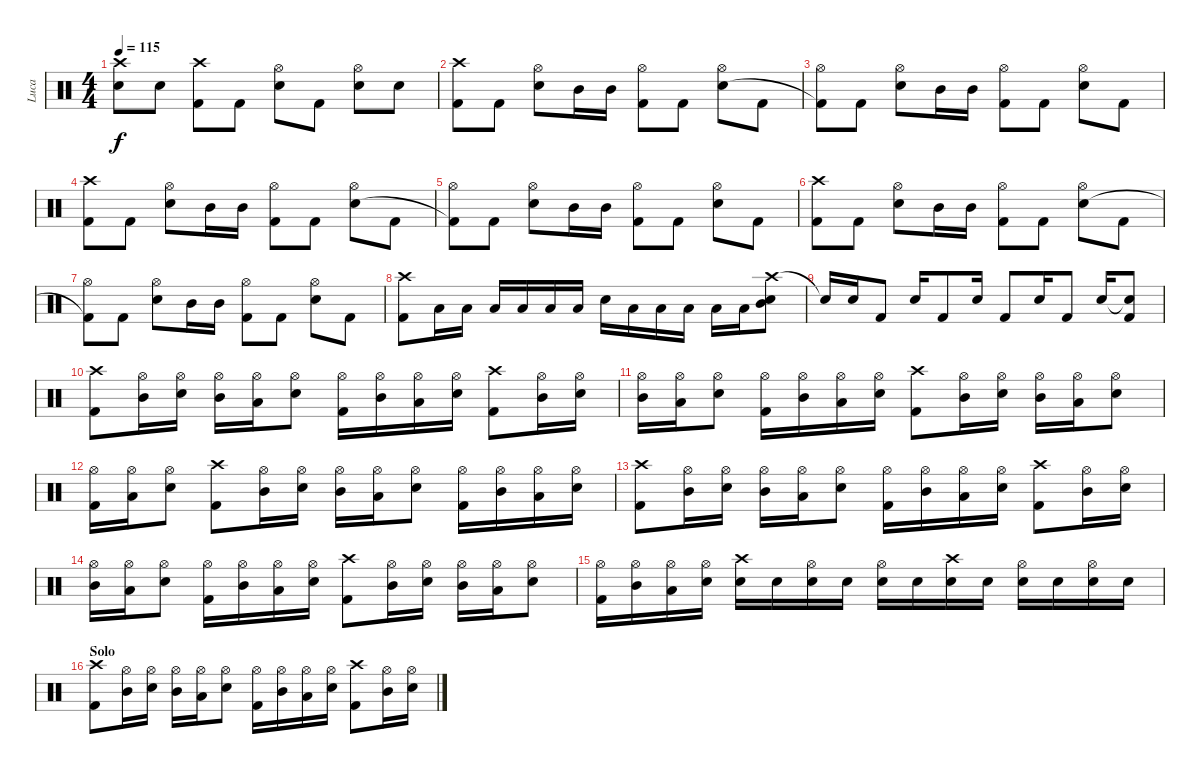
\track ("Luca" "Luca") {instrument percussion}
\staff {score}
\articulation defaults
\ts (4 4)
\tempo 115
\clef neutral
\ks c
("Crash high (hit)"{t} "Snare (hit)"{t}).8{dy f} "Snare (hit) 2".8 ("Crash high (hit)" "Kick (hit) 2").8 "Kick (hit) 2".8 ("Hi-Hat (open)" "Snare (hit) 2").8 "Kick (hit) 2".8 ("Hi-Hat (open)" "Snare (hit) 2").8 "Snare (hit) 2".8 |
("Crash high (hit)" "Kick (hit) 2").8 "Kick (hit) 2".8 ("Hi-Hat (open)" "Snare (hit) 2").8 "Mid Tom (hit)".16 "Mid Tom (hit)".16 ("Hi-Hat (open)" "Kick (hit) 2").8 "Kick (hit) 2".8 ("Hi-Hat (open)" "Snare (hit) 2").8 "Kick (hit) 2".8 |
("Hi-Hat (open)" "Kick (hit) 2"{t}).8 "Kick (hit) 2".8 ("Hi-Hat (open)" "Snare (hit) 2").8 "Mid Tom (hit)".16 "Mid Tom (hit)".16 ("Hi-Hat (open)" "Kick (hit) 2").8 "Kick (hit) 2".8 ("Hi-Hat (open)" "Snare (hit) 2").8 "Kick (hit) 2".8 |
("Crash high (hit)" "Kick (hit) 2").8 "Kick (hit) 2".8 ("Hi-Hat (open)" "Snare (hit) 2").8 "Mid Tom (hit)".16 "Mid Tom (hit)".16 ("Hi-Hat (open)" "Kick (hit) 2").8 "Kick (hit) 2".8 ("Hi-Hat (open)" "Snare (hit) 2").8 "Kick (hit) 2".8 |
("Hi-Hat (open)" "Kick (hit) 2"{t}).8 "Kick (hit) 2".8 ("Hi-Hat (open)" "Snare (hit) 2").8 "Mid Tom (hit)".16 "Mid Tom (hit)".16 ("Hi-Hat (open)" "Kick (hit) 2").8 "Kick (hit) 2".8 ("Hi-Hat (open)" "Snare (hit) 2").8 "Kick (hit) 2".8 |
("Crash high (hit)" "Kick (hit) 2").8 "Kick (hit) 2".8 ("Hi-Hat (open)" "Snare (hit) 2").8 "Mid Tom (hit)".16 "Mid Tom (hit)".16 ("Hi-Hat (open)" "Kick (hit) 2").8 "Kick (hit) 2".8 ("Hi-Hat (open)" "Snare (hit) 2").8 "Kick (hit) 2".8 |
("Hi-Hat (open)" "Kick (hit) 2"{t}).8 "Kick (hit) 2".8 ("Hi-Hat (open)" "Snare (hit) 2").8 "Mid Tom (hit)".16 "Mid Tom (hit)".16 ("Hi-Hat (open)" "Kick (hit) 2").8 "Kick (hit) 2".8 ("Hi-Hat (open)" "Snare (hit) 2").8 "Kick (hit) 2".8 |
("Crash high (hit)" "Kick (hit) 2").8 "Low Floor Tom (hit)".16 "Low Floor Tom (hit)".16 "Low Floor Tom (hit)".16 "Low Floor Tom (hit)".16 "Low Floor Tom (hit)".16 "Low Floor Tom (hit)".16 "Snare (hit) 2".16 "Low Floor Tom (hit)".16 "Low Floor Tom (hit)".16 "Low Floor Tom (hit)".16 "Low Floor Tom (hit)".16 "Low Floor Tom (hit)".16 ("Crash high (hit)" "Mid Tom (hit)" "Snare (hit) 2").8 |
"Snare (hit) 2"{t}.16 "Snare (hit) 2".16 "Kick (hit) 2".8 "Snare (hit) 2".16 "Kick (hit) 2".8 "Snare (hit) 2".16 "Kick (hit) 2".8 "Snare (hit) 2".16 "Kick (hit) 2".8 "Snare (hit) 2".16 ("Snare (hit)"{t} "Kick (hit) 2").8 |
("Crash high (hit)" "Kick (hit) 2").8 ("Hi-Hat (open)" "Mid Tom (hit)").16 ("Hi-Hat (open)" "Snare (hit) 2").16 ("Hi-Hat (open)" "Mid Tom (hit)").16 ("Hi-Hat (open)" "Low Floor Tom (hit)").16 ("Hi-Hat (open)" "Snare (hit) 2").8 ("Hi-Hat (open)" "Kick (hit) 2").16 ("Hi-Hat (open)" "Mid Tom (hit)").16 ("Hi-Hat (open)" "Low Floor Tom (hit)").16 ("Hi-Hat (open)" "Snare (hit) 2").16 ("Crash high (hit)" "Kick (hit) 2").8 ("Hi-Hat (open)" "Mid Tom (hit)").16 ("Hi-Hat (open)" "Snare (hit) 2").16 |
("Hi-Hat (open)" "Mid Tom (hit)").16 ("Hi-Hat (open)" "Low Floor Tom (hit)").16 ("Hi-Hat (open)" "Snare (hit) 2").8 ("Hi-Hat (open)" "Kick (hit) 2").16 ("Hi-Hat (open)" "Mid Tom (hit)").16 ("Hi-Hat (open)" "Low Floor Tom (hit)").16 ("Hi-Hat (open)" "Snare (hit) 2").16 ("Crash high (hit)" "Kick (hit) 2").8 ("Hi-Hat (open)" "Mid Tom (hit)").16 ("Hi-Hat (open)" "Snare (hit) 2").16 ("Hi-Hat (open)" "Mid Tom (hit)").16 ("Hi-Hat (open)" "Low Floor Tom (hit)").16 ("Hi-Hat (open)" "Snare (hit) 2").8 |
("Hi-Hat (open)" "Kick (hit) 2").16 ("Hi-Hat (open)" "Low Floor Tom (hit)").16 ("Hi-Hat (open)" "Snare (hit) 2").8 ("Crash high (hit)" "Kick (hit) 2").8 ("Hi-Hat (open)" "Mid Tom (hit)").16 ("Hi-Hat (open)" "Snare (hit) 2").16 ("Hi-Hat (open)" "Mid Tom (hit)").16 ("Hi-Hat (open)" "Low Floor Tom (hit)").16 ("Hi-Hat (open)" "Snare (hit) 2").8 ("Hi-Hat (open)" "Kick (hit) 2").16 ("Hi-Hat (open)" "Mid Tom (hit)").16 ("Hi-Hat (open)" "Low Floor Tom (hit)").16 ("Hi-Hat (open)" "Snare (hit) 2").16 |
("Crash high (hit)" "Kick (hit) 2").8 ("Hi-Hat (open)" "Mid Tom (hit)").16 ("Hi-Hat (open)" "Snare (hit) 2").16 ("Hi-Hat (open)" "Mid Tom (hit)").16 ("Hi-Hat (open)" "Low Floor Tom (hit)").16 ("Hi-Hat (open)" "Snare (hit) 2").8 ("Hi-Hat (open)" "Kick (hit) 2").16 ("Hi-Hat (open)" "Mid Tom (hit)").16 ("Hi-Hat (open)" "Low Floor Tom (hit)").16 ("Hi-Hat (open)" "Snare (hit) 2").16 ("Crash high (hit)" "Kick (hit) 2").8 ("Hi-Hat (open)" "Mid Tom (hit)").16 ("Hi-Hat (open)" "Snare (hit) 2").16 |
("Hi-Hat (open)" "Mid Tom (hit)").16 ("Hi-Hat (open)" "Low Floor Tom (hit)").16 ("Hi-Hat (open)" "Snare (hit) 2").8 ("Hi-Hat (open)" "Kick (hit) 2").16 ("Hi-Hat (open)" "Mid Tom (hit)").16 ("Hi-Hat (open)" "Low Floor Tom (hit)").16 ("Hi-Hat (open)" "Snare (hit) 2").16 ("Crash high (hit)" "Kick (hit) 2").8 ("Hi-Hat (open)" "Mid Tom (hit)").16 ("Hi-Hat (open)" "Snare (hit) 2").16 ("Hi-Hat (open)" "Mid Tom (hit)").16 ("Hi-Hat (open)" "Low Floor Tom (hit)").16 ("Hi-Hat (open)" "Snare (hit) 2").8 |
("Hi-Hat (open)" "Kick (hit) 2").16 ("Hi-Hat (open)" "Mid Tom (hit)").16 ("Hi-Hat (open)" "Low Floor Tom (hit)").16 ("Hi-Hat (open)" "Snare (hit) 2").16 ("Crash high (hit)" "Snare (hit) 2").16 "Snare (hit) 2".16 ("Hi-Hat (open)" "Snare (hit) 2").16 "Snare (hit) 2".16 ("Hi-Hat (open)" "Snare (hit) 2").16 "Snare (hit) 2".16 ("Crash high (hit)" "Snare (hit) 2").16 "Snare (hit) 2".16 ("Hi-Hat (open)" "Snare (hit) 2").16 "Snare (hit) 2".16 ("Hi-Hat (open)" "Snare (hit) 2").16 "Snare (hit) 2".16 |
\section ("" "Solo")
("Crash high (hit)" "Kick (hit) 2").8 ("Hi-Hat (open)" "Mid Tom (hit)").16 ("Hi-Hat (open)" "Snare (hit) 2").16 ("Hi-Hat (open)" "Mid Tom (hit)").16 ("Hi-Hat (open)" "Low Floor Tom (hit)").16 ("Hi-Hat (open)" "Snare (hit) 2").8 ("Hi-Hat (open)" "Kick (hit) 2").16 ("Hi-Hat (open)" "Mid Tom (hit)").16 ("Hi-Hat (open)" "Low Floor Tom (hit)").16 ("Hi-Hat (open)" "Snare (hit) 2").16 ("Crash high (hit)" "Kick (hit) 2").8 ("Hi-Hat (open)" "Mid Tom (hit)").16 ("Hi-Hat (open)" "Snare (hit) 2").16
